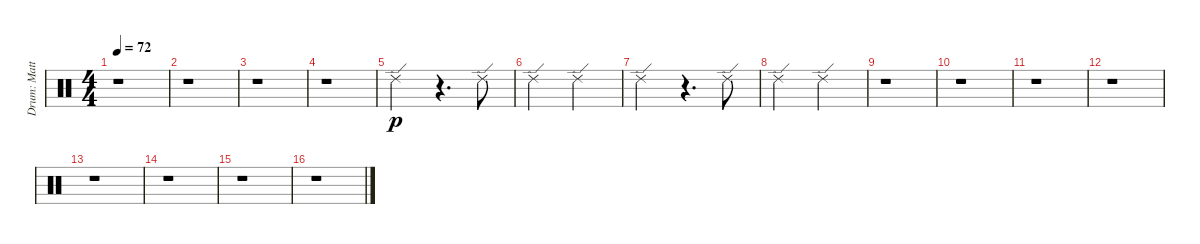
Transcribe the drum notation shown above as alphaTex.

\track ("Drum: Matt" "Drum: Matt") {instrument percussion}
\staff {score}
\articulation defaults
\ts (4 4)
\tempo 72
\clef neutral
\ks c
r.1{dy p} |
r.1 |
r.1 |
r.1 |
"Ride (edge) 2".2 r.4{d} "Ride (edge) 2".8 |
"Ride (edge) 2".2 "Ride (edge) 2".2 |
"Ride (edge) 2".2 r.4{d} "Ride (edge) 2".8 |
"Ride (edge) 2".2 "Ride (edge) 2".2 |
r.1 |
r.1 |
r.1 |
r.1 |
r.1 |
r.1 |
r.1 |
r.1
